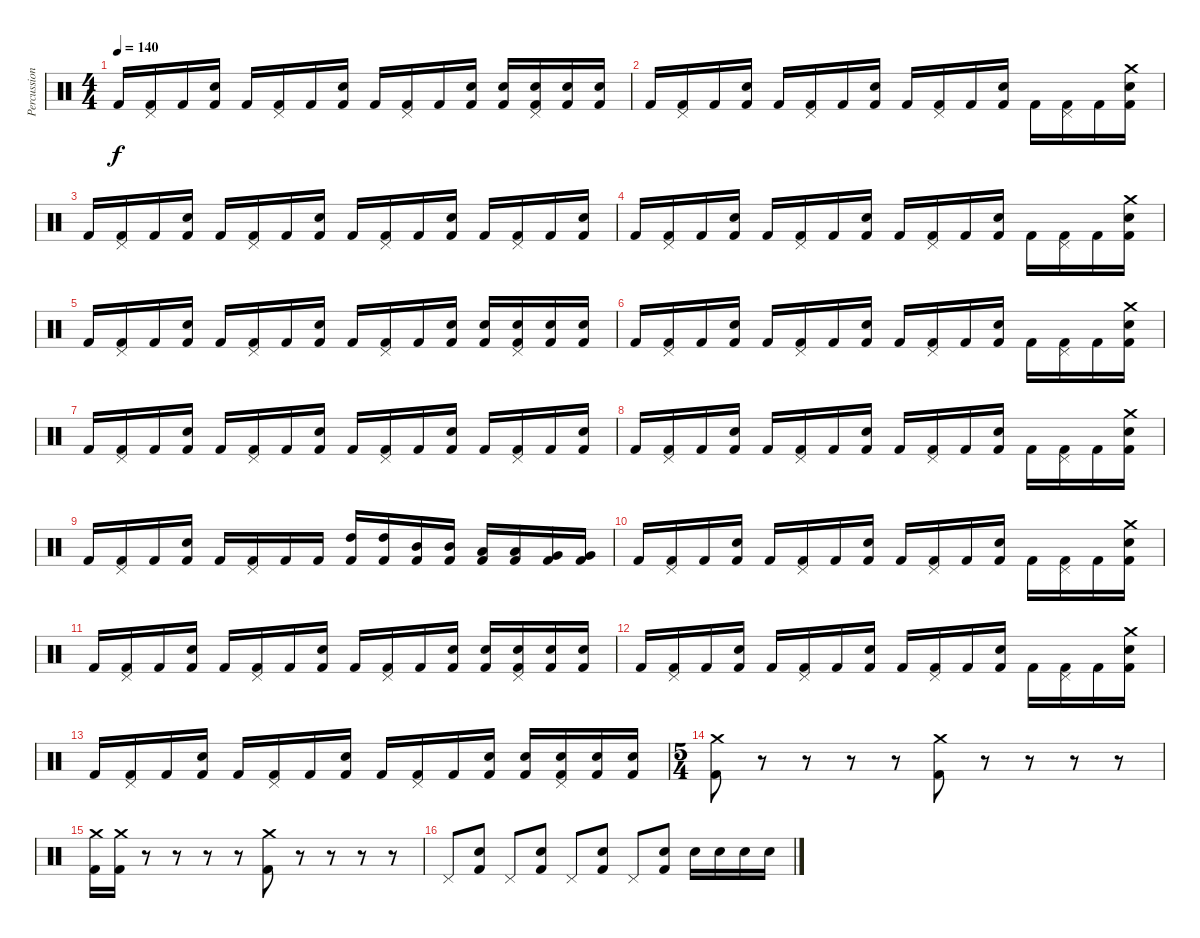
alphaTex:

\track ("Percussion" "Percussion") {instrument percussion}
\staff {score}
\articulation defaults
\ts (4 4)
\tempo 140
\clef neutral
\ks c "Kick (hit) 2".16{dy f}
("Pedal Hi-Hat (hit)" "Kick (hit) 2").16 "Kick (hit) 2".16 ("Snare (hit) 2" "Kick (hit) 2").16 "Kick (hit) 2".16 ("Pedal Hi-Hat (hit)" "Kick (hit) 2").16 "Kick (hit) 2".16 ("Snare (hit) 2" "Kick (hit) 2").16 "Kick (hit) 2".16 ("Pedal Hi-Hat (hit)" "Kick (hit) 2").16 "Kick (hit) 2".16 ("Snare (hit) 2" "Kick (hit) 2").16 ("Snare (hit) 2" "Kick (hit) 2").16 ("Pedal Hi-Hat (hit)" "Snare (hit) 2" "Kick (hit) 2").16 ("Snare (hit) 2" "Kick (hit) 2").16 ("Snare (hit) 2" "Kick (hit) 2").16 |
"Kick (hit) 2".16 ("Pedal Hi-Hat (hit)" "Kick (hit) 2").16 "Kick (hit) 2".16 ("Snare (hit) 2" "Kick (hit) 2").16 "Kick (hit) 2".16 ("Pedal Hi-Hat (hit)" "Kick (hit) 2").16 "Kick (hit) 2".16 ("Snare (hit) 2" "Kick (hit) 2").16 "Kick (hit) 2".16 ("Pedal Hi-Hat (hit)" "Kick (hit) 2").16 "Kick (hit) 2".16 ("Snare (hit) 2" "Kick (hit) 2").16 "Kick (hit) 2".16 ("Pedal Hi-Hat (hit)" "Kick (hit) 2").16 "Kick (hit) 2".16 ("Crash medium (hit)" "Snare (hit) 2" "Kick (hit) 2").16 |
"Kick (hit) 2".16 ("Pedal Hi-Hat (hit)" "Kick (hit) 2").16 "Kick (hit) 2".16 ("Snare (hit) 2" "Kick (hit) 2").16 "Kick (hit) 2".16 ("Pedal Hi-Hat (hit)" "Kick (hit) 2").16 "Kick (hit) 2".16 ("Snare (hit) 2" "Kick (hit) 2").16 "Kick (hit) 2".16 ("Pedal Hi-Hat (hit)" "Kick (hit) 2").16 "Kick (hit) 2".16 ("Snare (hit) 2" "Kick (hit) 2").16 "Kick (hit) 2".16 ("Pedal Hi-Hat (hit)" "Kick (hit) 2").16 "Kick (hit) 2".16 ("Snare (hit) 2" "Kick (hit) 2").16 |
"Kick (hit) 2".16 ("Pedal Hi-Hat (hit)" "Kick (hit) 2").16 "Kick (hit) 2".16 ("Snare (hit) 2" "Kick (hit) 2").16 "Kick (hit) 2".16 ("Pedal Hi-Hat (hit)" "Kick (hit) 2").16 "Kick (hit) 2".16 ("Snare (hit) 2" "Kick (hit) 2").16 "Kick (hit) 2".16 ("Pedal Hi-Hat (hit)" "Kick (hit) 2").16 "Kick (hit) 2".16 ("Snare (hit) 2" "Kick (hit) 2").16 "Kick (hit) 2".16 ("Pedal Hi-Hat (hit)" "Kick (hit) 2").16 "Kick (hit) 2".16 ("Crash medium (hit)" "Snare (hit) 2" "Kick (hit) 2").16 |
"Kick (hit) 2".16 ("Pedal Hi-Hat (hit)" "Kick (hit) 2").16 "Kick (hit) 2".16 ("Snare (hit) 2" "Kick (hit) 2").16 "Kick (hit) 2".16 ("Pedal Hi-Hat (hit)" "Kick (hit) 2").16 "Kick (hit) 2".16 ("Snare (hit) 2" "Kick (hit) 2").16 "Kick (hit) 2".16 ("Pedal Hi-Hat (hit)" "Kick (hit) 2").16 "Kick (hit) 2".16 ("Snare (hit) 2" "Kick (hit) 2").16 ("Snare (hit) 2" "Kick (hit) 2").16 ("Pedal Hi-Hat (hit)" "Snare (hit) 2" "Kick (hit) 2").16 ("Snare (hit) 2" "Kick (hit) 2").16 ("Snare (hit) 2" "Kick (hit) 2").16 |
"Kick (hit) 2".16 ("Pedal Hi-Hat (hit)" "Kick (hit) 2").16 "Kick (hit) 2".16 ("Snare (hit) 2" "Kick (hit) 2").16 "Kick (hit) 2".16 ("Pedal Hi-Hat (hit)" "Kick (hit) 2").16 "Kick (hit) 2".16 ("Snare (hit) 2" "Kick (hit) 2").16 "Kick (hit) 2".16 ("Pedal Hi-Hat (hit)" "Kick (hit) 2").16 "Kick (hit) 2".16 ("Snare (hit) 2" "Kick (hit) 2").16 "Kick (hit) 2".16 ("Pedal Hi-Hat (hit)" "Kick (hit) 2").16 "Kick (hit) 2".16 ("Crash medium (hit)" "Snare (hit) 2" "Kick (hit) 2").16 |
"Kick (hit) 2".16 ("Pedal Hi-Hat (hit)" "Kick (hit) 2").16 "Kick (hit) 2".16 ("Snare (hit) 2" "Kick (hit) 2").16 "Kick (hit) 2".16 ("Pedal Hi-Hat (hit)" "Kick (hit) 2").16 "Kick (hit) 2".16 ("Snare (hit) 2" "Kick (hit) 2").16 "Kick (hit) 2".16 ("Pedal Hi-Hat (hit)" "Kick (hit) 2").16 "Kick (hit) 2".16 ("Snare (hit) 2" "Kick (hit) 2").16 "Kick (hit) 2".16 ("Pedal Hi-Hat (hit)" "Kick (hit) 2").16 "Kick (hit) 2".16 ("Snare (hit) 2" "Kick (hit) 2").16 |
"Kick (hit) 2".16 ("Pedal Hi-Hat (hit)" "Kick (hit) 2").16 "Kick (hit) 2".16 ("Snare (hit) 2" "Kick (hit) 2").16 "Kick (hit) 2".16 ("Pedal Hi-Hat (hit)" "Kick (hit) 2").16 "Kick (hit) 2".16 ("Snare (hit) 2" "Kick (hit) 2").16 "Kick (hit) 2".16 ("Pedal Hi-Hat (hit)" "Kick (hit) 2").16 "Kick (hit) 2".16 ("Snare (hit) 2" "Kick (hit) 2").16 "Kick (hit) 2".16 ("Pedal Hi-Hat (hit)" "Kick (hit) 2").16 "Kick (hit) 2".16 ("Crash medium (hit)" "Snare (hit) 2" "Kick (hit) 2").16 |
"Kick (hit) 2".16 ("Pedal Hi-Hat (hit)" "Kick (hit) 2").16 "Kick (hit) 2".16 ("Snare (hit) 2" "Kick (hit) 2").16 "Kick (hit) 2".16 ("Pedal Hi-Hat (hit)" "Kick (hit) 2").16 "Kick (hit) 2".16 "Kick (hit) 2".16 ("High Tom (hit)" "Kick (hit) 2").16 ("High Tom (hit)" "Kick (hit) 2").16 ("Mid Tom (hit)" "Kick (hit) 2").16 ("Mid Tom (hit)" "Kick (hit) 2").16 ("Low Tom (hit)" "Kick (hit) 2").16 ("Low Tom (hit)" "Kick (hit) 2").16 ("Very Low Tom (hit)" "Kick (hit) 2").16 ("Very Low Tom (hit)" "Kick (hit) 2").16 |
"Kick (hit) 2".16 ("Pedal Hi-Hat (hit)" "Kick (hit) 2").16 "Kick (hit) 2".16 ("Snare (hit) 2" "Kick (hit) 2").16 "Kick (hit) 2".16 ("Pedal Hi-Hat (hit)" "Kick (hit) 2").16 "Kick (hit) 2".16 ("Snare (hit) 2" "Kick (hit) 2").16 "Kick (hit) 2".16 ("Pedal Hi-Hat (hit)" "Kick (hit) 2").16 "Kick (hit) 2".16 ("Snare (hit) 2" "Kick (hit) 2").16 "Kick (hit) 2".16 ("Pedal Hi-Hat (hit)" "Kick (hit) 2").16 "Kick (hit) 2".16 ("Crash medium (hit)" "Snare (hit) 2" "Kick (hit) 2").16 |
"Kick (hit) 2".16 ("Pedal Hi-Hat (hit)" "Kick (hit) 2").16 "Kick (hit) 2".16 ("Snare (hit) 2" "Kick (hit) 2").16 "Kick (hit) 2".16 ("Pedal Hi-Hat (hit)" "Kick (hit) 2").16 "Kick (hit) 2".16 ("Snare (hit) 2" "Kick (hit) 2").16 "Kick (hit) 2".16 ("Pedal Hi-Hat (hit)" "Kick (hit) 2").16 "Kick (hit) 2".16 ("Snare (hit) 2" "Kick (hit) 2").16 ("Snare (hit) 2" "Kick (hit) 2").16 ("Pedal Hi-Hat (hit)" "Snare (hit) 2" "Kick (hit) 2").16 ("Snare (hit) 2" "Kick (hit) 2").16 ("Snare (hit) 2" "Kick (hit) 2").16 |
"Kick (hit) 2".16 ("Pedal Hi-Hat (hit)" "Kick (hit) 2").16 "Kick (hit) 2".16 ("Snare (hit) 2" "Kick (hit) 2").16 "Kick (hit) 2".16 ("Pedal Hi-Hat (hit)" "Kick (hit) 2").16 "Kick (hit) 2".16 ("Snare (hit) 2" "Kick (hit) 2").16 "Kick (hit) 2".16 ("Pedal Hi-Hat (hit)" "Kick (hit) 2").16 "Kick (hit) 2".16 ("Snare (hit) 2" "Kick (hit) 2").16 "Kick (hit) 2".16 ("Pedal Hi-Hat (hit)" "Kick (hit) 2").16 "Kick (hit) 2".16 ("Crash medium (hit)" "Snare (hit) 2" "Kick (hit) 2").16 |
"Kick (hit) 2".16 ("Pedal Hi-Hat (hit)" "Kick (hit) 2").16 "Kick (hit) 2".16 ("Snare (hit) 2" "Kick (hit) 2").16 "Kick (hit) 2".16 ("Pedal Hi-Hat (hit)" "Kick (hit) 2").16 "Kick (hit) 2".16 ("Snare (hit) 2" "Kick (hit) 2").16 "Kick (hit) 2".16 ("Pedal Hi-Hat (hit)" "Kick (hit) 2").16 "Kick (hit) 2".16 ("Snare (hit) 2" "Kick (hit) 2").16 ("Snare (hit) 2" "Kick (hit) 2").16 ("Pedal Hi-Hat (hit)" "Snare (hit) 2" "Kick (hit) 2").16 ("Snare (hit) 2" "Kick (hit) 2").16 ("Snare (hit) 2" "Kick (hit) 2").16 |
\ts (5 4)
("Crash medium (hit)" "Kick (hit) 2").8 r.8 r.8 r.8 r.8 ("Crash medium (hit)" "Kick (hit) 2").8 r.8 r.8 r.8 r.8 |
("Crash medium (hit)" "Kick (hit) 2").16 ("Crash medium (hit)" "Kick (hit) 2").16 r.8 r.8 r.8 r.8 ("Crash medium (hit)" "Kick (hit) 2").8 r.8 r.8 r.8 r.8 |
"Pedal Hi-Hat (hit)".8 ("Snare (hit) 2" "Kick (hit) 2").8 "Pedal Hi-Hat (hit)".8 ("Snare (hit) 2" "Kick (hit) 2").8 "Pedal Hi-Hat (hit)".8 ("Snare (hit) 2" "Kick (hit) 2").8 "Pedal Hi-Hat (hit)".8 ("Snare (hit) 2" "Kick (hit) 2").8 "Snare (hit) 2".16 "Snare (hit) 2".16 "Snare (hit) 2".16 "Snare (hit) 2".16
